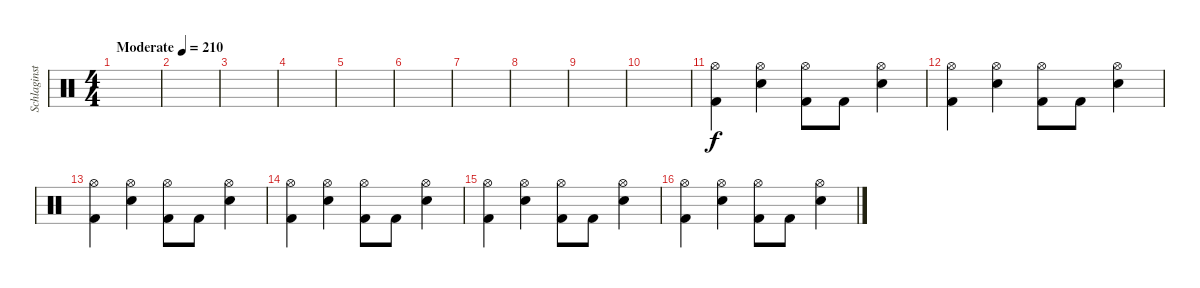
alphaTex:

\track ("Schlaginstrumente - Auswahl" "Schlaginst") {instrument percussion}
\staff {score}
\articulation defaults
\ts (4 4)
\tempo (210 "Moderate")
\clef neutral
\ks c
|
|
|
|
|
|
|
|
|
|
("Hi-Hat (open)" "Kick (hit) 2").4 ("Hi-Hat (open)" "Electric Snare (hit)").4 ("Hi-Hat (open)" "Kick (hit) 2").8 "Kick (hit) 2".8 ("Hi-Hat (open)" "Electric Snare (hit)").4 |
("Hi-Hat (open)" "Kick (hit) 2").4 ("Hi-Hat (open)" "Electric Snare (hit)").4 ("Hi-Hat (open)" "Kick (hit) 2").8 "Kick (hit) 2".8 ("Hi-Hat (open)" "Electric Snare (hit)").4 |
("Hi-Hat (open)" "Kick (hit) 2").4 ("Hi-Hat (open)" "Electric Snare (hit)").4 ("Hi-Hat (open)" "Kick (hit) 2").8 "Kick (hit) 2".8 ("Hi-Hat (open)" "Electric Snare (hit)").4 |
("Hi-Hat (open)" "Kick (hit) 2").4 ("Hi-Hat (open)" "Electric Snare (hit)").4 ("Hi-Hat (open)" "Kick (hit) 2").8 "Kick (hit) 2".8 ("Hi-Hat (open)" "Electric Snare (hit)").4 |
("Hi-Hat (open)" "Kick (hit) 2").4 ("Hi-Hat (open)" "Electric Snare (hit)").4 ("Hi-Hat (open)" "Kick (hit) 2").8 "Kick (hit) 2".8 ("Hi-Hat (open)" "Electric Snare (hit)").4 |
("Hi-Hat (open)" "Kick (hit) 2").4 ("Hi-Hat (open)" "Electric Snare (hit)").4 ("Hi-Hat (open)" "Kick (hit) 2").8 "Kick (hit) 2".8 ("Hi-Hat (open)" "Electric Snare (hit)").4
